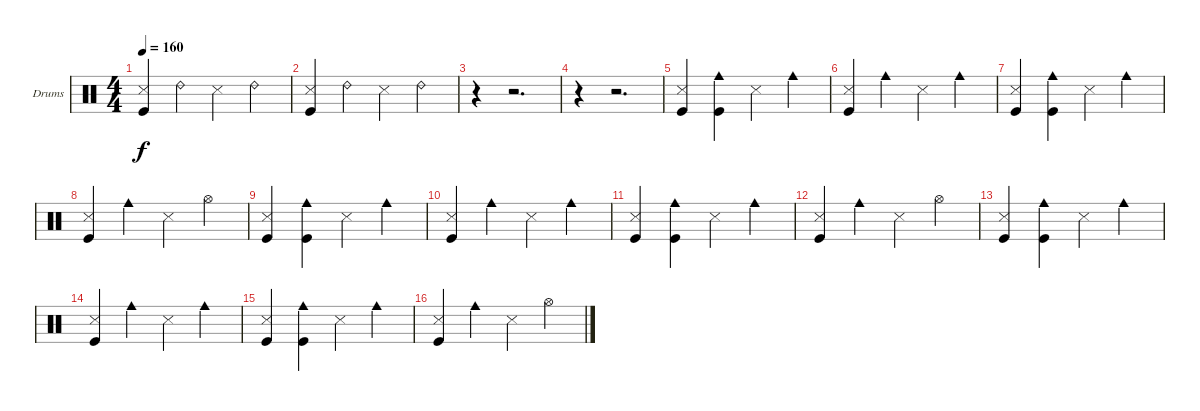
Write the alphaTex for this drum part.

\bracketExtendMode nobrackets
\firstSystemTrackNameOrientation horizontal
\otherSystemsTrackNameOrientation horizontal
\track ("Drumkit" "Drums") {instrument percussion}
\staff {score}
\articulation defaults
\ts (4 4)
\tempo 160
\clef neutral
\ks c
("Snare (side stick) 3" "Kick (hit)").4{dy f} "Ride (bell) 2".4 "Snare (side stick) 3".4 "Ride (bell) 2".4 |
("Snare (side stick) 3" "Kick (hit)").4 "Ride (bell) 2".4 "Snare (side stick) 3".4 "Ride (bell) 2".4 |
r.4 r.2{d} |
r.4 r.2{d} |
("Snare (side stick) 3" "Kick (hit)").4 ("Cowbell medium (hit)" "Kick (hit)").4 "Snare (side stick) 3".4 "Cowbell medium (hit)".4 |
("Snare (side stick) 3" "Kick (hit)").4 "Cowbell medium (hit)".4 "Snare (side stick) 3".4 "Cowbell medium (hit)".4 |
("Snare (side stick) 3" "Kick (hit)").4 ("Cowbell medium (hit)" "Kick (hit)").4 "Snare (side stick) 3".4 "Cowbell medium (hit)".4 |
("Snare (side stick) 3" "Kick (hit)").4 "Cowbell medium (hit)".4 "Snare (side stick) 3".4 "Hi-Hat (open)".4 |
("Snare (side stick) 3" "Kick (hit)").4 ("Cowbell medium (hit)" "Kick (hit)").4 "Snare (side stick) 3".4 "Cowbell medium (hit)".4 |
("Snare (side stick) 3" "Kick (hit)").4 "Cowbell medium (hit)".4 "Snare (side stick) 3".4 "Cowbell medium (hit)".4 |
("Snare (side stick) 3" "Kick (hit)").4 ("Cowbell medium (hit)" "Kick (hit)").4 "Snare (side stick) 3".4 "Cowbell medium (hit)".4 |
("Snare (side stick) 3" "Kick (hit)").4 "Cowbell medium (hit)".4 "Snare (side stick) 3".4 "Hi-Hat (open)".4 |
("Snare (side stick) 3" "Kick (hit)").4 ("Cowbell medium (hit)" "Kick (hit)").4 "Snare (side stick) 3".4 "Cowbell medium (hit)".4 |
("Snare (side stick) 3" "Kick (hit)").4 "Cowbell medium (hit)".4 "Snare (side stick) 3".4 "Cowbell medium (hit)".4 |
("Snare (side stick) 3" "Kick (hit)").4 ("Cowbell medium (hit)" "Kick (hit)").4 "Snare (side stick) 3".4 "Cowbell medium (hit)".4 |
("Snare (side stick) 3" "Kick (hit)").4 "Cowbell medium (hit)".4 "Snare (side stick) 3".4 "Hi-Hat (open)".4
